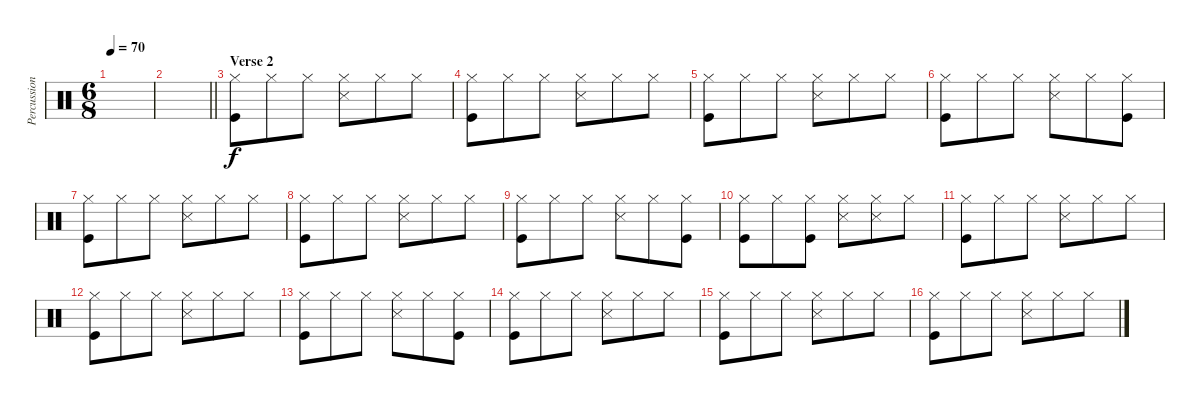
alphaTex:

\track ("Percussion" "Percussion") {instrument percussion}
\staff {score}
\articulation defaults
\ts (6 8)
\tempo 70
\clef neutral
\ks c
|
\barLineRight lightlight
|
\section ("" "Verse 2")
("Kick (hit)" "Hi-Hat (closed)").8 "Hi-Hat (closed)".8 "Hi-Hat (closed)".8 ("Snare (side stick) 3" "Hi-Hat (closed)").8 "Hi-Hat (closed)".8 "Hi-Hat (closed)".8 |
("Kick (hit)" "Hi-Hat (closed)").8 "Hi-Hat (closed)".8 "Hi-Hat (closed)".8 ("Snare (side stick) 3" "Hi-Hat (closed)").8 "Hi-Hat (closed)".8 "Hi-Hat (closed)".8 |
("Kick (hit)" "Hi-Hat (closed)").8 "Hi-Hat (closed)".8 "Hi-Hat (closed)".8 ("Snare (side stick) 3" "Hi-Hat (closed)").8 "Hi-Hat (closed)".8 "Hi-Hat (closed)".8 |
("Kick (hit)" "Hi-Hat (closed)").8 "Hi-Hat (closed)".8 "Hi-Hat (closed)".8 ("Snare (side stick) 3" "Hi-Hat (closed)").8 "Hi-Hat (closed)".8 ("Kick (hit)" "Hi-Hat (closed)").8 |
("Kick (hit)" "Hi-Hat (closed)").8 "Hi-Hat (closed)".8 "Hi-Hat (closed)".8 ("Snare (side stick) 3" "Hi-Hat (closed)").8 "Hi-Hat (closed)".8 "Hi-Hat (closed)".8 |
("Kick (hit)" "Hi-Hat (closed)").8 "Hi-Hat (closed)".8 "Hi-Hat (closed)".8 ("Snare (side stick) 3" "Hi-Hat (closed)").8 "Hi-Hat (closed)".8 "Hi-Hat (closed)".8 |
("Kick (hit)" "Hi-Hat (closed)").8 "Hi-Hat (closed)".8 "Hi-Hat (closed)".8 ("Snare (side stick) 3" "Hi-Hat (closed)").8 "Hi-Hat (closed)".8 ("Kick (hit)" "Hi-Hat (closed)").8 |
("Kick (hit)" "Hi-Hat (closed)").8 "Hi-Hat (closed)".8 ("Kick (hit)" "Hi-Hat (closed)").8 ("Snare (side stick) 3" "Hi-Hat (closed)").8 ("Snare (side stick) 3" "Hi-Hat (closed)").8 "Hi-Hat (closed)".8 |
("Kick (hit)" "Hi-Hat (closed)").8 "Hi-Hat (closed)".8 "Hi-Hat (closed)".8 ("Snare (side stick) 3" "Hi-Hat (closed)").8 "Hi-Hat (closed)".8 "Hi-Hat (closed)".8 |
("Kick (hit)" "Hi-Hat (closed)").8 "Hi-Hat (closed)".8 "Hi-Hat (closed)".8 ("Snare (side stick) 3" "Hi-Hat (closed)").8 "Hi-Hat (closed)".8 "Hi-Hat (closed)".8 |
("Kick (hit)" "Hi-Hat (closed)").8 "Hi-Hat (closed)".8 "Hi-Hat (closed)".8 ("Snare (side stick) 3" "Hi-Hat (closed)").8 "Hi-Hat (closed)".8 ("Kick (hit)" "Hi-Hat (closed)").8 |
("Kick (hit)" "Hi-Hat (closed)").8 "Hi-Hat (closed)".8 "Hi-Hat (closed)".8 ("Snare (side stick) 3" "Hi-Hat (closed)").8 "Hi-Hat (closed)".8 "Hi-Hat (closed)".8 |
("Kick (hit)" "Hi-Hat (closed)").8 "Hi-Hat (closed)".8 "Hi-Hat (closed)".8 ("Snare (side stick) 3" "Hi-Hat (closed)").8 "Hi-Hat (closed)".8 "Hi-Hat (closed)".8 |
("Kick (hit)" "Hi-Hat (closed)").8 "Hi-Hat (closed)".8 "Hi-Hat (closed)".8 ("Snare (side stick) 3" "Hi-Hat (closed)").8 "Hi-Hat (closed)".8 "Hi-Hat (closed)".8
